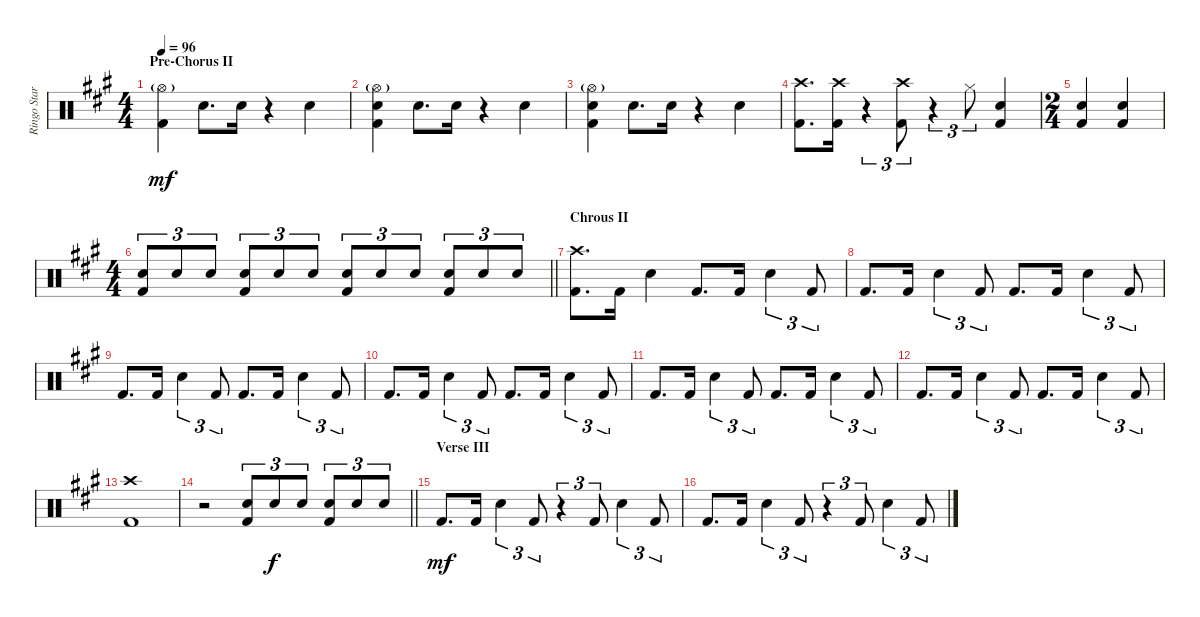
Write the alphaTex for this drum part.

\track ("Ringo Starr - Drums" "Ringo Star") {instrument percussion}
\staff {score}
\articulation defaults
\ts (4 4)
\section ("" "Pre-Chorus II")
\tempo 96
\clef neutral
\ks a
("Hi-Hat (open)"{g} "Kick (hit) 2").4{dy mf} "Snare (hit) 2".8{d} "Snare (hit) 2".16 r.4 "Snare (hit) 2".4 |
("Hi-Hat (open)"{g} "Snare (hit) 2" "Kick (hit) 2").4 "Snare (hit) 2".8{d} "Snare (hit) 2".16 r.4 "Snare (hit) 2".4 |
("Hi-Hat (open)"{g} "Snare (hit) 2" "Kick (hit) 2").4 "Snare (hit) 2".8{d} "Snare (hit) 2".16 r.4 "Snare (hit) 2".4 |
("Crash high (hit)" "Kick (hit) 2").8{d} ("Crash high (hit)" "Kick (hit) 2").16 r.4{tu (3 2)} ("Crash high (hit)" "Kick (hit) 2").8{tu (3 2)} r.4{tu (3 2)} "Hi-Hat (closed)".8{tu (3 2)} ("Snare (hit) 2" "Kick (hit) 2").4 |
\ts (2 4)
("Snare (hit) 2" "Kick (hit) 2").4 ("Snare (hit) 2" "Kick (hit) 2").4 |
\ts (4 4)
\barLineRight lightlight
("Snare (hit) 2" "Kick (hit) 2").8{tu (3 2)} "Snare (hit) 2".8{tu (3 2)} "Snare (hit) 2".8{tu (3 2)} ("Snare (hit) 2" "Kick (hit) 2").8{tu (3 2)} "Snare (hit) 2".8{tu (3 2)} "Snare (hit) 2".8{tu (3 2)} ("Snare (hit) 2" "Kick (hit) 2").8{tu (3 2)} "Snare (hit) 2".8{tu (3 2)} "Snare (hit) 2".8{tu (3 2)} ("Snare (hit) 2" "Kick (hit) 2").8{tu (3 2)} "Snare (hit) 2".8{tu (3 2)} "Snare (hit) 2".8{tu (3 2)} |
\section ("" "Chrous II")
("Crash high (hit)" "Kick (hit) 2").8{d} "Kick (hit) 2".16 "Snare (hit) 2".4 "Kick (hit) 2".8{d} "Kick (hit) 2".16 "Snare (hit) 2".4{tu (3 2)} "Kick (hit) 2".8{tu (3 2)} |
"Kick (hit) 2".8{d} "Kick (hit) 2".16 "Snare (hit) 2".4{tu (3 2)} "Kick (hit) 2".8{tu (3 2)} "Kick (hit) 2".8{d} "Kick (hit) 2".16 "Snare (hit) 2".4{tu (3 2)} "Kick (hit) 2".8{tu (3 2)} |
"Kick (hit) 2".8{d} "Kick (hit) 2".16 "Snare (hit) 2".4{tu (3 2)} "Kick (hit) 2".8{tu (3 2)} "Kick (hit) 2".8{d} "Kick (hit) 2".16 "Snare (hit) 2".4{tu (3 2)} "Kick (hit) 2".8{tu (3 2)} |
"Kick (hit) 2".8{d} "Kick (hit) 2".16 "Snare (hit) 2".4{tu (3 2)} "Kick (hit) 2".8{tu (3 2)} "Kick (hit) 2".8{d} "Kick (hit) 2".16 "Snare (hit) 2".4{tu (3 2)} "Kick (hit) 2".8{tu (3 2)} |
"Kick (hit) 2".8{d} "Kick (hit) 2".16 "Snare (hit) 2".4{tu (3 2)} "Kick (hit) 2".8{tu (3 2)} "Kick (hit) 2".8{d} "Kick (hit) 2".16 "Snare (hit) 2".4{tu (3 2)} "Kick (hit) 2".8{tu (3 2)} |
"Kick (hit) 2".8{d} "Kick (hit) 2".16 "Snare (hit) 2".4{tu (3 2)} "Kick (hit) 2".8{tu (3 2)} "Kick (hit) 2".8{d} "Kick (hit) 2".16 "Snare (hit) 2".4{tu (3 2)} "Kick (hit) 2".8{tu (3 2)} |
("Crash high (hit)" "Kick (hit) 2").1 |
\barLineRight lightlight
r.2 ("Electric Snare (hit)" "Kick (hit) 2").8{tu (3 2)} "Electric Snare (hit)".8{tu (3 2) dy f} "Electric Snare (hit)".8{tu (3 2)} ("Electric Snare (hit)" "Kick (hit) 2").8{tu (3 2)} "Electric Snare (hit)".8{tu (3 2)} "Electric Snare (hit)".8{tu (3 2)} |
\section ("" "Verse III")
"Kick (hit) 2".8{d dy mf} "Kick (hit) 2".16 "Snare (hit) 2".4{tu (3 2)} "Kick (hit) 2".8{tu (3 2)} r.4{tu (3 2)} "Kick (hit) 2".8{tu (3 2)} "Snare (hit) 2".4{tu (3 2)} "Kick (hit) 2".8{tu (3 2)} |
"Kick (hit) 2".8{d} "Kick (hit) 2".16 "Snare (hit) 2".4{tu (3 2)} "Kick (hit) 2".8{tu (3 2)} r.4{tu (3 2)} "Kick (hit) 2".8{tu (3 2)} "Snare (hit) 2".4{tu (3 2)} "Kick (hit) 2".8{tu (3 2)}
